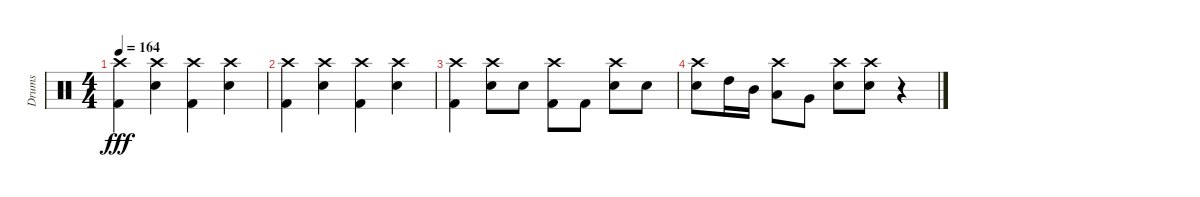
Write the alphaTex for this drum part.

\track ("Drums" "Drums") {instrument percussion}
\staff {score}
\articulation defaults
\ts (4 4)
\tempo 164
\clef neutral
\ks c
("Crash high (hit)" "Kick (hit) 2").4{dy fff} ("Crash high (hit)" "Electric Snare (hit)").4 ("Crash high (hit)" "Kick (hit) 2").4 ("Crash high (hit)" "Electric Snare (hit)").4 |
("Crash high (hit)" "Kick (hit) 2").4 ("Crash high (hit)" "Electric Snare (hit)").4 ("Crash high (hit)" "Kick (hit) 2").4 ("Crash high (hit)" "Electric Snare (hit)").4 |
("Crash high (hit)" "Kick (hit) 2").4 ("Crash high (hit)" "Electric Snare (hit)").8 "Electric Snare (hit)".8 ("Crash high (hit)" "Kick (hit) 2").8 "Kick (hit) 2".8 ("Crash high (hit)" "Electric Snare (hit)").8 "Electric Snare (hit)".8 |
("Crash high (hit)" "Electric Snare (hit)").8 "High Tom (hit)".16 "Mid Tom (hit)".16 ("Crash high (hit)" "Low Tom (hit)").8 "Very Low Tom (hit)".8 ("Crash high (hit)" "Electric Snare (hit)").8 ("Crash high (hit)" "Electric Snare (hit)").8 r.4
